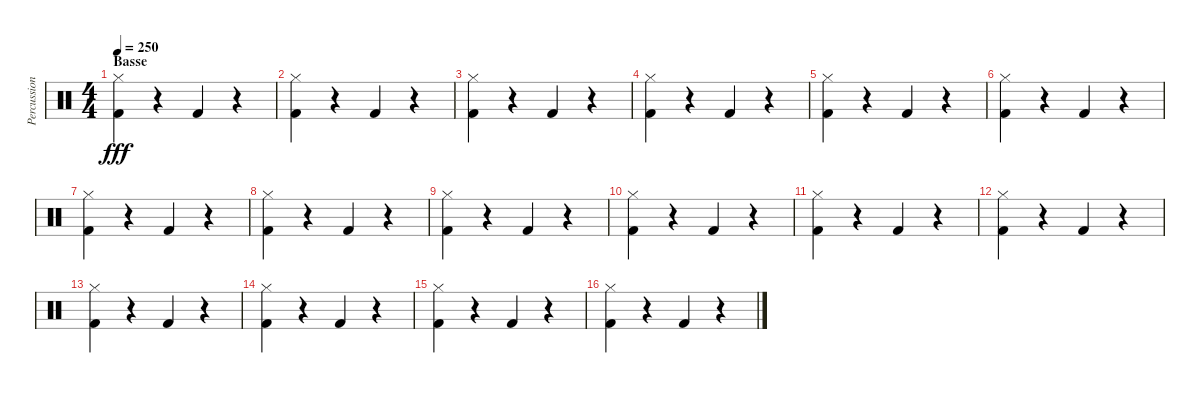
\track ("Percussions" "Percussion") {instrument percussion}
\staff {score}
\articulation defaults
\ts (4 4)
\section ("" "Basse")
\tempo 250
\clef neutral
\ks c
("Hi-Hat (closed)" "Kick (hit) 2").4{dy fff} r.4 "Kick (hit) 2".4 r.4 |
("Hi-Hat (closed)" "Kick (hit) 2").4 r.4 "Kick (hit) 2".4 r.4 |
("Hi-Hat (closed)" "Kick (hit) 2").4 r.4 "Kick (hit) 2".4 r.4 |
("Hi-Hat (closed)" "Kick (hit) 2").4 r.4 "Kick (hit) 2".4 r.4 |
("Hi-Hat (closed)" "Kick (hit) 2").4 r.4 "Kick (hit) 2".4 r.4 |
("Hi-Hat (closed)" "Kick (hit) 2").4 r.4 "Kick (hit) 2".4 r.4 |
("Hi-Hat (closed)" "Kick (hit) 2").4 r.4 "Kick (hit) 2".4 r.4 |
("Hi-Hat (closed)" "Kick (hit) 2").4 r.4 "Kick (hit) 2".4 r.4 |
("Hi-Hat (closed)" "Kick (hit) 2").4 r.4 "Kick (hit) 2".4 r.4 |
("Hi-Hat (closed)" "Kick (hit) 2").4 r.4 "Kick (hit) 2".4 r.4 |
("Hi-Hat (closed)" "Kick (hit) 2").4 r.4 "Kick (hit) 2".4 r.4 |
("Hi-Hat (closed)" "Kick (hit) 2").4 r.4 "Kick (hit) 2".4 r.4 |
("Hi-Hat (closed)" "Kick (hit) 2").4 r.4 "Kick (hit) 2".4 r.4 |
("Hi-Hat (closed)" "Kick (hit) 2").4 r.4 "Kick (hit) 2".4 r.4 |
("Hi-Hat (closed)" "Kick (hit) 2").4 r.4 "Kick (hit) 2".4 r.4 |
("Hi-Hat (closed)" "Kick (hit) 2").4 r.4 "Kick (hit) 2".4 r.4
